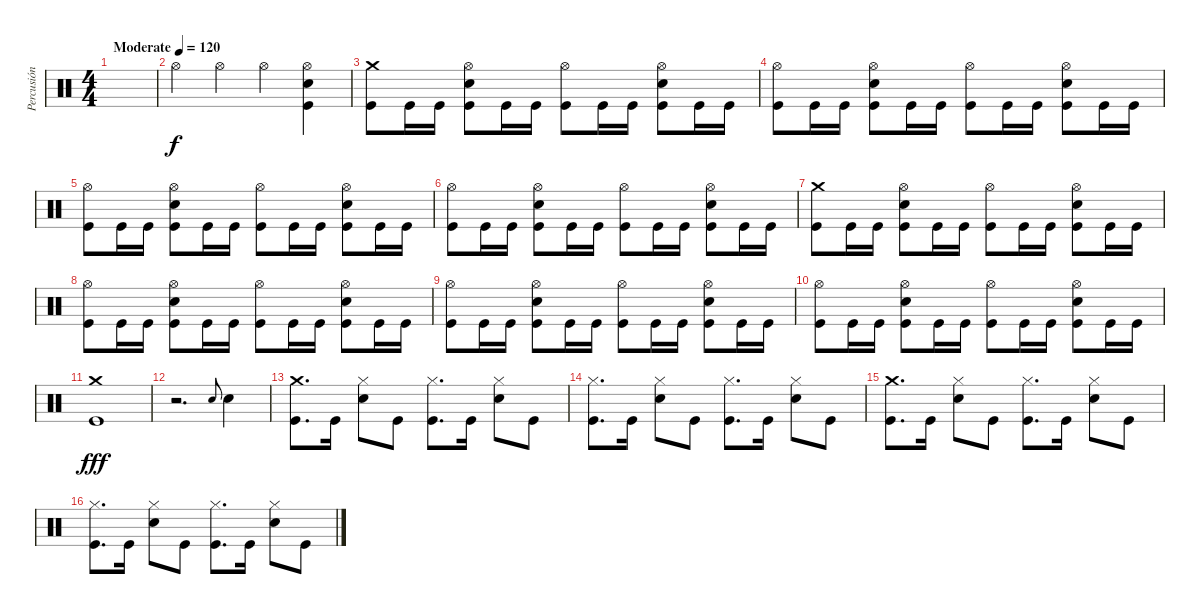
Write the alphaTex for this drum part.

\track ("Percusión" "Percusión") {instrument percussion}
\staff {score}
\articulation defaults
\ts (4 4)
\tempo (120 "Moderate")
\clef neutral
\ks c
|
"Hi-Hat (open)".4 "Hi-Hat (open)".4 "Hi-Hat (open)".4 ("Hi-Hat (open)" "Snare (hit) 2" "Kick (hit)").4 |
("Crash medium (hit)" "Kick (hit)").8 "Kick (hit)".16 "Kick (hit)".16 ("Hi-Hat (open)" "Snare (hit) 2" "Kick (hit)").8 "Kick (hit)".16 "Kick (hit)".16 ("Hi-Hat (open)" "Kick (hit)").8 "Kick (hit)".16 "Kick (hit)".16 ("Hi-Hat (open)" "Snare (hit) 2" "Kick (hit)").8 "Kick (hit)".16 "Kick (hit)".16 |
("Hi-Hat (open)" "Kick (hit)").8 "Kick (hit)".16 "Kick (hit)".16 ("Hi-Hat (open)" "Snare (hit) 2" "Kick (hit)").8 "Kick (hit)".16 "Kick (hit)".16 ("Hi-Hat (open)" "Kick (hit)").8 "Kick (hit)".16 "Kick (hit)".16 ("Hi-Hat (open)" "Snare (hit) 2" "Kick (hit)").8 "Kick (hit)".16 "Kick (hit)".16 |
("Hi-Hat (open)" "Kick (hit)").8 "Kick (hit)".16 "Kick (hit)".16 ("Hi-Hat (open)" "Snare (hit) 2" "Kick (hit)").8 "Kick (hit)".16 "Kick (hit)".16 ("Hi-Hat (open)" "Kick (hit)").8 "Kick (hit)".16 "Kick (hit)".16 ("Hi-Hat (open)" "Snare (hit) 2" "Kick (hit)").8 "Kick (hit)".16 "Kick (hit)".16 |
("Hi-Hat (open)" "Kick (hit)").8 "Kick (hit)".16 "Kick (hit)".16 ("Hi-Hat (open)" "Snare (hit) 2" "Kick (hit)").8 "Kick (hit)".16 "Kick (hit)".16 ("Hi-Hat (open)" "Kick (hit)").8 "Kick (hit)".16 "Kick (hit)".16 ("Hi-Hat (open)" "Snare (hit) 2" "Kick (hit)").8 "Kick (hit)".16 "Kick (hit)".16 |
("Crash medium (hit)" "Kick (hit)").8 "Kick (hit)".16 "Kick (hit)".16 ("Hi-Hat (open)" "Snare (hit) 2" "Kick (hit)").8 "Kick (hit)".16 "Kick (hit)".16 ("Hi-Hat (open)" "Kick (hit)").8 "Kick (hit)".16 "Kick (hit)".16 ("Hi-Hat (open)" "Snare (hit) 2" "Kick (hit)").8 "Kick (hit)".16 "Kick (hit)".16 |
("Hi-Hat (open)" "Kick (hit)").8 "Kick (hit)".16 "Kick (hit)".16 ("Hi-Hat (open)" "Snare (hit) 2" "Kick (hit)").8 "Kick (hit)".16 "Kick (hit)".16 ("Hi-Hat (open)" "Kick (hit)").8 "Kick (hit)".16 "Kick (hit)".16 ("Hi-Hat (open)" "Snare (hit) 2" "Kick (hit)").8 "Kick (hit)".16 "Kick (hit)".16 |
("Hi-Hat (open)" "Kick (hit)").8 "Kick (hit)".16 "Kick (hit)".16 ("Hi-Hat (open)" "Snare (hit) 2" "Kick (hit)").8 "Kick (hit)".16 "Kick (hit)".16 ("Hi-Hat (open)" "Kick (hit)").8 "Kick (hit)".16 "Kick (hit)".16 ("Hi-Hat (open)" "Snare (hit) 2" "Kick (hit)").8 "Kick (hit)".16 "Kick (hit)".16 |
("Hi-Hat (open)" "Kick (hit)").8 "Kick (hit)".16 "Kick (hit)".16 ("Hi-Hat (open)" "Snare (hit) 2" "Kick (hit)").8 "Kick (hit)".16 "Kick (hit)".16 ("Hi-Hat (open)" "Kick (hit)").8 "Kick (hit)".16 "Kick (hit)".16 ("Hi-Hat (open)" "Snare (hit) 2" "Kick (hit)").8 "Kick (hit)".16 "Kick (hit)".16 |
("Crash medium (hit)" "Kick (hit)").1{dy fff} |
r.2{d} "Snare (hit) 2".8{gr onbeat} "Snare (hit) 2".4 |
("Crash medium (hit)" "Kick (hit)").8{d} "Kick (hit)".16 ("Hi-Hat (closed)" "Snare (hit) 2").8 "Kick (hit)".8 ("Hi-Hat (closed)" "Kick (hit)").8{d} "Kick (hit)".16 ("Hi-Hat (closed)" "Snare (hit) 2").8 "Kick (hit)".8 |
("Hi-Hat (closed)" "Kick (hit)").8{d} "Kick (hit)".16 ("Hi-Hat (closed)" "Snare (hit) 2").8 "Kick (hit)".8 ("Hi-Hat (closed)" "Kick (hit)").8{d} "Kick (hit)".16 ("Hi-Hat (closed)" "Snare (hit) 2").8 "Kick (hit)".8 |
("Crash medium (hit)" "Kick (hit)").8{d} "Kick (hit)".16 ("Hi-Hat (closed)" "Snare (hit) 2").8 "Kick (hit)".8 ("Hi-Hat (closed)" "Kick (hit)").8{d} "Kick (hit)".16 ("Hi-Hat (closed)" "Snare (hit) 2").8 "Kick (hit)".8 |
("Hi-Hat (closed)" "Kick (hit)").8{d} "Kick (hit)".16 ("Hi-Hat (closed)" "Snare (hit) 2").8 "Kick (hit)".8 ("Hi-Hat (closed)" "Kick (hit)").8{d} "Kick (hit)".16 ("Hi-Hat (closed)" "Snare (hit) 2").8 "Kick (hit)".8
